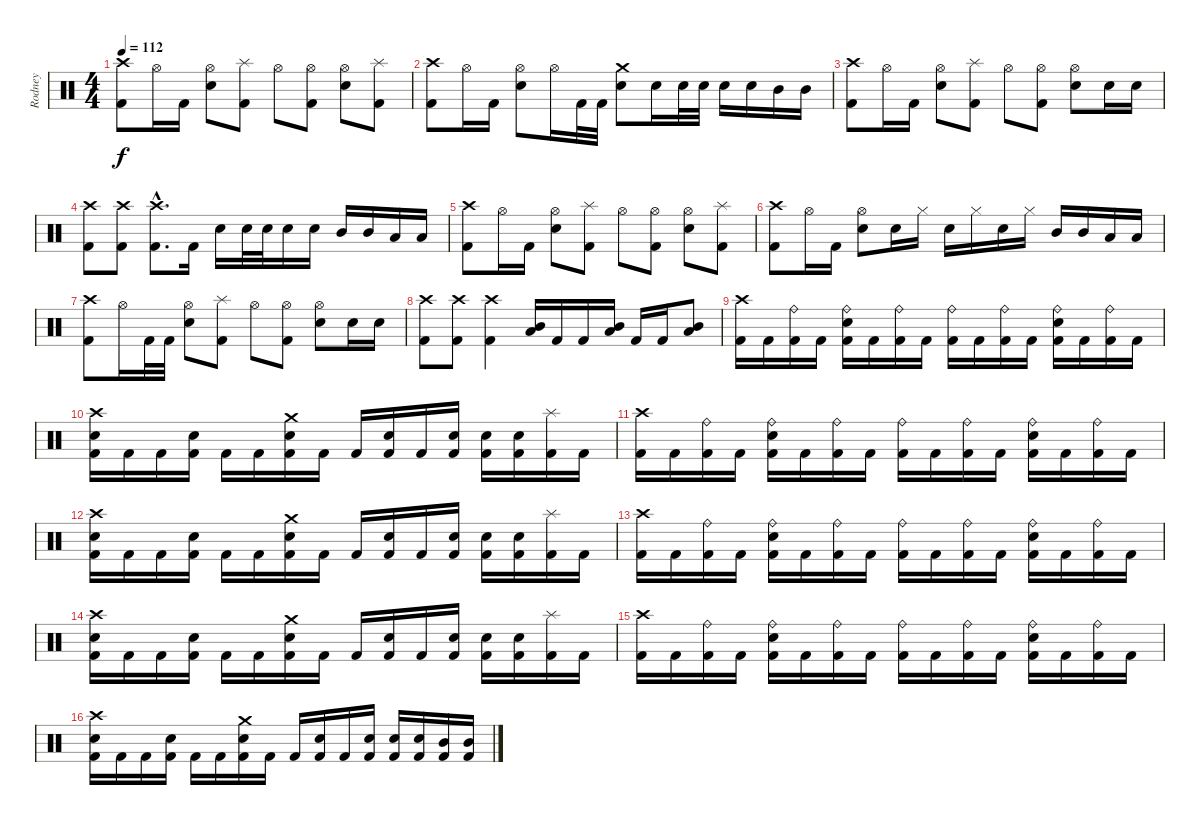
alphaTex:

\track ("Rodney" "Rodney") {instrument percussion}
\staff {score}
\articulation defaults
\ts (4 4)
\tempo 112
\clef neutral
\ks c
("Crash high (hit)" "Kick (hit) 2").8{dy f} "Hi-Hat (open)".16 "Kick (hit) 2".16 ("Hi-Hat (open)" "Snare (hit) 2").8 ("Splash (hit)" "Kick (hit) 2").8 "Hi-Hat (open)".8 ("Hi-Hat (open)" "Kick (hit) 2").8 ("Hi-Hat (open)" "Snare (hit) 2").8 ("Splash (hit)" "Kick (hit) 2").8 |
("Crash high (hit)" "Kick (hit) 2").8 "Hi-Hat (open)".16 "Kick (hit) 2".16 ("Hi-Hat (open)" "Snare (hit) 2").8 "Hi-Hat (open)".16 "Kick (hit) 2".32 "Kick (hit) 2".32 ("Crash medium (hit)" "Snare (hit) 2").8 "Snare (hit) 2".16 "Snare (hit) 2".32 "Snare (hit) 2".32 "Snare (hit) 2".16 "Snare (hit) 2".16 "Mid Tom (hit)".16 "Mid Tom (hit)".16 |
("Crash high (hit)" "Kick (hit) 2").8 "Hi-Hat (open)".16 "Kick (hit) 2".16 ("Hi-Hat (open)" "Snare (hit) 2").8 ("Splash (hit)" "Kick (hit) 2").8 "Hi-Hat (open)".8 ("Hi-Hat (open)" "Kick (hit) 2").8 ("Hi-Hat (open)" "Snare (hit) 2").8 "Snare (hit) 2".16 "Snare (hit) 2".16 |
("Crash high (hit)" "Kick (hit) 2").8 ("Crash high (hit)" "Kick (hit) 2").8 ("Crash high (hit)"{hac} "Kick (hit) 2"{hac}).8{d} "Kick (hit) 2".16 "Snare (hit) 2".16 "Snare (hit) 2".32 "Snare (hit) 2".32 "Snare (hit) 2".16 "Snare (hit) 2".16 "Mid Tom (hit)".16 "Mid Tom (hit)".16 "Low Tom (hit)".16 "Low Tom (hit)".16 |
("Crash high (hit)" "Kick (hit) 2").8 "Hi-Hat (open)".16 "Kick (hit) 2".16 ("Hi-Hat (open)" "Snare (hit) 2").8 ("Splash (hit)" "Kick (hit) 2").8 "Hi-Hat (open)".8 ("Hi-Hat (open)" "Kick (hit) 2").8 ("Hi-Hat (open)" "Snare (hit) 2").8 ("Splash (hit)" "Kick (hit) 2").8 |
("Crash high (hit)" "Kick (hit) 2").8 "Hi-Hat (open)".16 "Kick (hit) 2".16 ("Hi-Hat (open)" "Snare (hit) 2").8 "Snare (hit) 2".16 "Hi-Hat (closed)".16 "Snare (hit) 2".16 "Hi-Hat (closed)".16 "Snare (hit) 2".16 "Hi-Hat (closed)".16 "Mid Tom (hit)".16 "Mid Tom (hit)".16 "Low Tom (hit)".16 "Low Tom (hit)".16 |
("Crash high (hit)" "Kick (hit) 2").8 "Hi-Hat (open)".16 "Kick (hit) 2".32 "Kick (hit) 2".32 ("Hi-Hat (open)" "Snare (hit) 2").8 ("Splash (hit)" "Kick (hit) 2").8 "Hi-Hat (open)".8 ("Hi-Hat (open)" "Kick (hit) 2").8 ("Hi-Hat (open)" "Snare (hit) 2").8 "Snare (hit) 2".16 "Snare (hit) 2".16 |
("Crash high (hit)" "Kick (hit) 2").8 ("Crash high (hit)" "Kick (hit) 2").8 ("Crash high (hit)" "Kick (hit) 2").4 ("Mid Tom (hit)" "Low Tom (hit)").16 "Kick (hit) 2".16 "Kick (hit) 2".16 ("Mid Tom (hit)" "Low Tom (hit)").16 "Kick (hit) 2".16 "Kick (hit) 2".16 ("Mid Tom (hit)" "Low Tom (hit)").8 |
("Crash high (hit)" "Kick (hit) 2").16 "Kick (hit) 2".16 ("Ride (bell)" "Kick (hit) 2").16 "Kick (hit) 2".16 ("Ride (bell)" "Snare (hit) 2" "Kick (hit) 2").16 "Kick (hit) 2".16 ("Ride (bell)" "Kick (hit) 2").16 "Kick (hit) 2".16 ("Ride (bell)" "Kick (hit) 2").16 "Kick (hit) 2".16 ("Ride (bell)" "Kick (hit) 2").16 "Kick (hit) 2".16 ("Ride (bell)" "Snare (hit) 2" "Kick (hit) 2").16 "Kick (hit) 2".16 ("Ride (bell)" "Kick (hit) 2").16 "Kick (hit) 2".16 |
("Crash high (hit)" "Snare (hit) 2" "Kick (hit) 2").16 "Kick (hit) 2".16 "Kick (hit) 2".16 ("Snare (hit) 2" "Kick (hit) 2").16 "Kick (hit) 2".16 "Kick (hit) 2".16 ("Crash medium (hit)" "Snare (hit) 2" "Kick (hit) 2").16 "Kick (hit) 2".16 "Kick (hit) 2".16 ("Snare (hit) 2" "Kick (hit) 2").16 "Kick (hit) 2".16 ("Snare (hit) 2" "Kick (hit) 2").16 ("Snare (hit) 2" "Kick (hit) 2").16 ("Snare (hit) 2" "Kick (hit) 2").16 ("Splash (hit)" "Kick (hit) 2").16 "Kick (hit) 2".16 |
("Crash high (hit)" "Kick (hit) 2").16 "Kick (hit) 2".16 ("Ride (bell)" "Kick (hit) 2").16 "Kick (hit) 2".16 ("Ride (bell)" "Snare (hit) 2" "Kick (hit) 2").16 "Kick (hit) 2".16 ("Ride (bell)" "Kick (hit) 2").16 "Kick (hit) 2".16 ("Ride (bell)" "Kick (hit) 2").16 "Kick (hit) 2".16 ("Ride (bell)" "Kick (hit) 2").16 "Kick (hit) 2".16 ("Ride (bell)" "Snare (hit) 2" "Kick (hit) 2").16 "Kick (hit) 2".16 ("Ride (bell)" "Kick (hit) 2").16 "Kick (hit) 2".16 |
("Crash high (hit)" "Snare (hit) 2" "Kick (hit) 2").16 "Kick (hit) 2".16 "Kick (hit) 2".16 ("Snare (hit) 2" "Kick (hit) 2").16 "Kick (hit) 2".16 "Kick (hit) 2".16 ("Crash medium (hit)" "Snare (hit) 2" "Kick (hit) 2").16 "Kick (hit) 2".16 "Kick (hit) 2".16 ("Snare (hit) 2" "Kick (hit) 2").16 "Kick (hit) 2".16 ("Snare (hit) 2" "Kick (hit) 2").16 ("Snare (hit) 2" "Kick (hit) 2").16 ("Snare (hit) 2" "Kick (hit) 2").16 ("Splash (hit)" "Kick (hit) 2").16 "Kick (hit) 2".16 |
("Crash high (hit)" "Kick (hit) 2").16 "Kick (hit) 2".16 ("Ride (bell)" "Kick (hit) 2").16 "Kick (hit) 2".16 ("Ride (bell)" "Snare (hit) 2" "Kick (hit) 2").16 "Kick (hit) 2".16 ("Ride (bell)" "Kick (hit) 2").16 "Kick (hit) 2".16 ("Ride (bell)" "Kick (hit) 2").16 "Kick (hit) 2".16 ("Ride (bell)" "Kick (hit) 2").16 "Kick (hit) 2".16 ("Ride (bell)" "Snare (hit) 2" "Kick (hit) 2").16 "Kick (hit) 2".16 ("Ride (bell)" "Kick (hit) 2").16 "Kick (hit) 2".16 |
("Crash high (hit)" "Snare (hit) 2" "Kick (hit) 2").16 "Kick (hit) 2".16 "Kick (hit) 2".16 ("Snare (hit) 2" "Kick (hit) 2").16 "Kick (hit) 2".16 "Kick (hit) 2".16 ("Crash medium (hit)" "Snare (hit) 2" "Kick (hit) 2").16 "Kick (hit) 2".16 "Kick (hit) 2".16 ("Snare (hit) 2" "Kick (hit) 2").16 "Kick (hit) 2".16 ("Snare (hit) 2" "Kick (hit) 2").16 ("Snare (hit) 2" "Kick (hit) 2").16 ("Snare (hit) 2" "Kick (hit) 2").16 ("Splash (hit)" "Kick (hit) 2").16 "Kick (hit) 2".16 |
("Crash high (hit)" "Kick (hit) 2").16 "Kick (hit) 2".16 ("Ride (bell)" "Kick (hit) 2").16 "Kick (hit) 2".16 ("Ride (bell)" "Snare (hit) 2" "Kick (hit) 2").16 "Kick (hit) 2".16 ("Ride (bell)" "Kick (hit) 2").16 "Kick (hit) 2".16 ("Ride (bell)" "Kick (hit) 2").16 "Kick (hit) 2".16 ("Ride (bell)" "Kick (hit) 2").16 "Kick (hit) 2".16 ("Ride (bell)" "Snare (hit) 2" "Kick (hit) 2").16 "Kick (hit) 2".16 ("Ride (bell)" "Kick (hit) 2").16 "Kick (hit) 2".16 |
("Crash high (hit)" "Snare (hit) 2" "Kick (hit) 2").16 "Kick (hit) 2".16 "Kick (hit) 2".16 ("Snare (hit) 2" "Kick (hit) 2").16 "Kick (hit) 2".16 "Kick (hit) 2".16 ("Crash medium (hit)" "Snare (hit) 2" "Kick (hit) 2").16 "Kick (hit) 2".16 "Kick (hit) 2".16 ("Snare (hit) 2" "Kick (hit) 2").16 "Kick (hit) 2".16 ("Snare (hit) 2" "Kick (hit) 2").16 ("Snare (hit) 2" "Kick (hit) 2").16 ("Snare (hit) 2" "Kick (hit) 2").16 ("Mid Tom (hit)" "Kick (hit) 2").16 ("Mid Tom (hit)" "Kick (hit) 2").16
